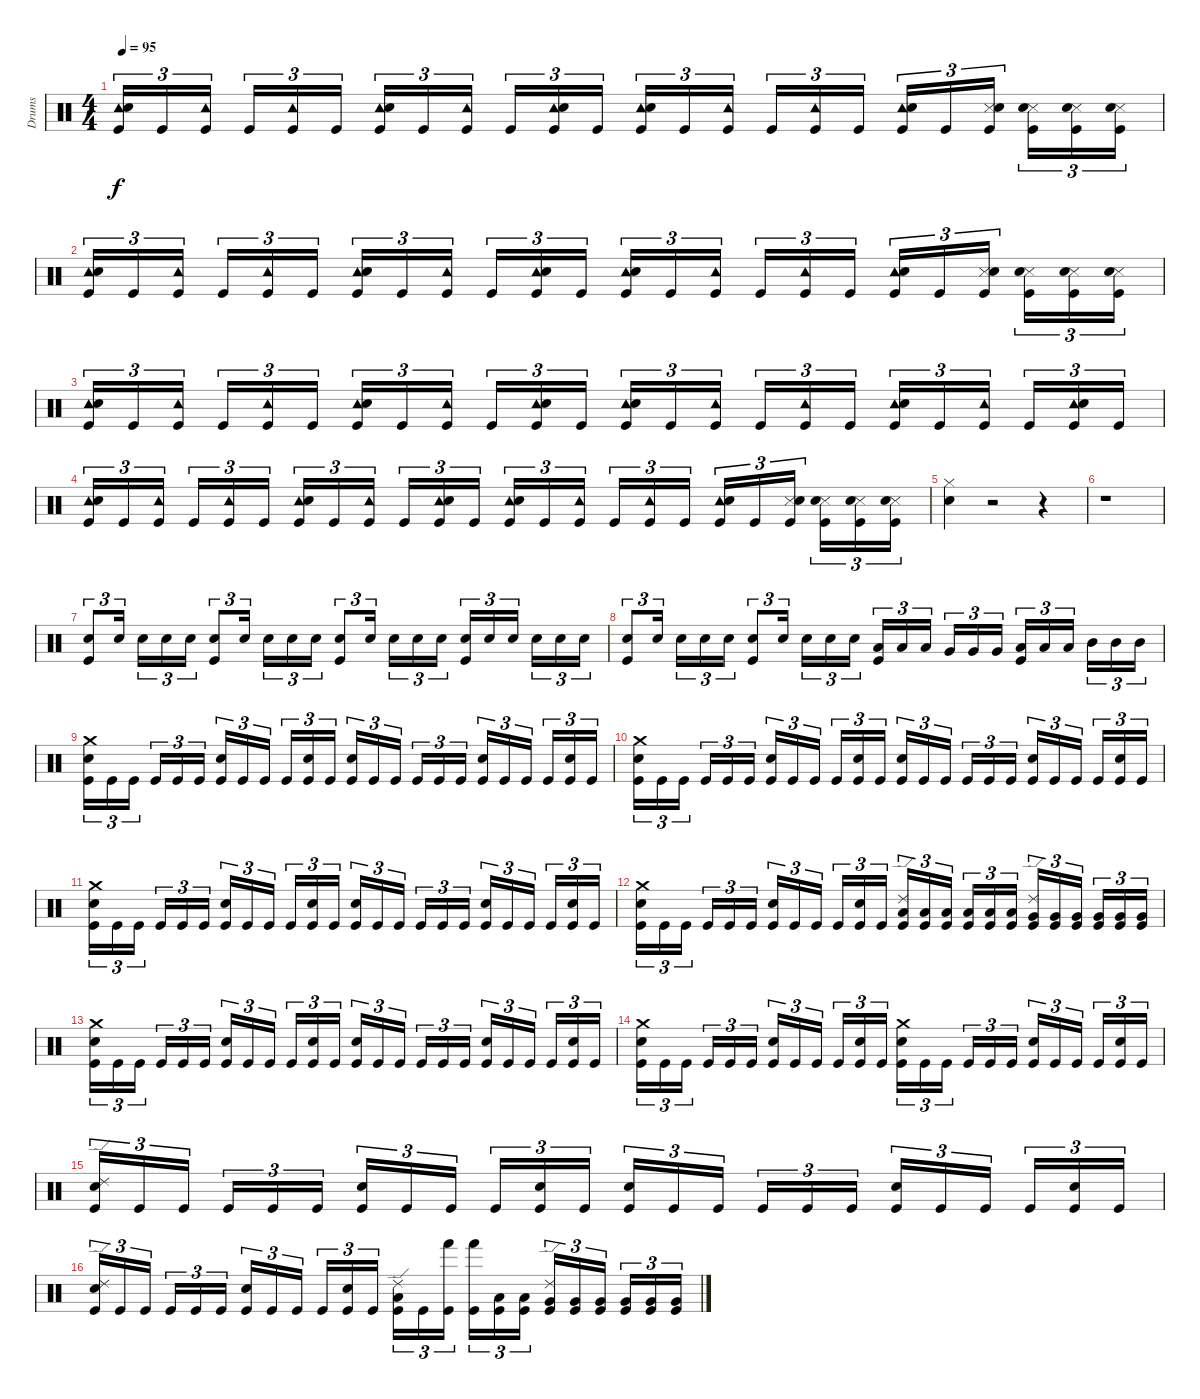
\track ("Drums" "Drums") {instrument percussion}
\staff {score}
\articulation defaults
\ts (4 4)
\tempo 95
\clef neutral
\ks c
("Tambourine (hit)" "Snare (hit) 2" "Kick (hit)").16{tu (3 2) dy f} "Kick (hit)".16{tu (3 2)} ("Tambourine (hit)" "Kick (hit)").16{tu (3 2)} "Kick (hit)".16{tu (3 2)} ("Tambourine (hit)" "Kick (hit)").16{tu (3 2)} "Kick (hit)".16{tu (3 2)} ("Tambourine (hit)" "Snare (hit) 2" "Kick (hit)").16{tu (3 2)} "Kick (hit)".16{tu (3 2)} ("Tambourine (hit)" "Kick (hit)").16{tu (3 2)} "Kick (hit)".16{tu (3 2)} ("Tambourine (hit)" "Snare (hit) 2" "Kick (hit)").16{tu (3 2)} "Kick (hit)".16{tu (3 2)} ("Tambourine (hit)" "Snare (hit) 2" "Kick (hit)").16{tu (3 2)} "Kick (hit)".16{tu (3 2)} ("Tambourine (hit)" "Kick (hit)").16{tu (3 2)} "Kick (hit)".16{tu (3 2)} ("Tambourine (hit)" "Kick (hit)").16{tu (3 2)} "Kick (hit)".16{tu (3 2)} ("Tambourine (hit)" "Snare (hit) 2" "Kick (hit)").16{tu (3 2)} "Kick (hit)".16{tu (3 2)} ("Snare (side stick) 3" "Snare (hit) 2" "Kick (hit)").16{tu (3 2)} ("Snare (side stick) 3" "Snare (hit) 2" "Kick (hit)").16{tu (3 2)} ("Snare (side stick) 3" "Snare (hit) 2" "Kick (hit)").16{tu (3 2)} ("Snare (side stick) 3" "Snare (hit) 2" "Kick (hit)").16{tu (3 2)} |
("Tambourine (hit)" "Snare (hit) 2" "Kick (hit)").16{tu (3 2)} "Kick (hit)".16{tu (3 2)} ("Tambourine (hit)" "Kick (hit)").16{tu (3 2)} "Kick (hit)".16{tu (3 2)} ("Tambourine (hit)" "Kick (hit)").16{tu (3 2)} "Kick (hit)".16{tu (3 2)} ("Tambourine (hit)" "Snare (hit) 2" "Kick (hit)").16{tu (3 2)} "Kick (hit)".16{tu (3 2)} ("Tambourine (hit)" "Kick (hit)").16{tu (3 2)} "Kick (hit)".16{tu (3 2)} ("Tambourine (hit)" "Snare (hit) 2" "Kick (hit)").16{tu (3 2)} "Kick (hit)".16{tu (3 2)} ("Tambourine (hit)" "Snare (hit) 2" "Kick (hit)").16{tu (3 2)} "Kick (hit)".16{tu (3 2)} ("Tambourine (hit)" "Kick (hit)").16{tu (3 2)} "Kick (hit)".16{tu (3 2)} ("Tambourine (hit)" "Kick (hit)").16{tu (3 2)} "Kick (hit)".16{tu (3 2)} ("Tambourine (hit)" "Snare (hit) 2" "Kick (hit)").16{tu (3 2)} "Kick (hit)".16{tu (3 2)} ("Snare (side stick) 3" "Snare (hit) 2" "Kick (hit)").16{tu (3 2)} ("Snare (side stick) 3" "Snare (hit) 2" "Kick (hit)").16{tu (3 2)} ("Snare (side stick) 3" "Snare (hit) 2" "Kick (hit)").16{tu (3 2)} ("Snare (side stick) 3" "Snare (hit) 2" "Kick (hit)").16{tu (3 2)} |
("Tambourine (hit)" "Snare (hit) 2" "Kick (hit)").16{tu (3 2)} "Kick (hit)".16{tu (3 2)} ("Tambourine (hit)" "Kick (hit)").16{tu (3 2)} "Kick (hit)".16{tu (3 2)} ("Tambourine (hit)" "Kick (hit)").16{tu (3 2)} "Kick (hit)".16{tu (3 2)} ("Tambourine (hit)" "Snare (hit) 2" "Kick (hit)").16{tu (3 2)} "Kick (hit)".16{tu (3 2)} ("Tambourine (hit)" "Kick (hit)").16{tu (3 2)} "Kick (hit)".16{tu (3 2)} ("Tambourine (hit)" "Snare (hit) 2" "Kick (hit)").16{tu (3 2)} "Kick (hit)".16{tu (3 2)} ("Tambourine (hit)" "Snare (hit) 2" "Kick (hit)").16{tu (3 2)} "Kick (hit)".16{tu (3 2)} ("Tambourine (hit)" "Kick (hit)").16{tu (3 2)} "Kick (hit)".16{tu (3 2)} ("Tambourine (hit)" "Kick (hit)").16{tu (3 2)} "Kick (hit)".16{tu (3 2)} ("Tambourine (hit)" "Snare (hit) 2" "Kick (hit)").16{tu (3 2)} "Kick (hit)".16{tu (3 2)} ("Tambourine (hit)" "Kick (hit)").16{tu (3 2)} "Kick (hit)".16{tu (3 2)} ("Tambourine (hit)" "Snare (hit) 2" "Kick (hit)").16{tu (3 2)} "Kick (hit)".16{tu (3 2)} |
("Tambourine (hit)" "Snare (hit) 2" "Kick (hit)").16{tu (3 2)} "Kick (hit)".16{tu (3 2)} ("Tambourine (hit)" "Kick (hit)").16{tu (3 2)} "Kick (hit)".16{tu (3 2)} ("Tambourine (hit)" "Kick (hit)").16{tu (3 2)} "Kick (hit)".16{tu (3 2)} ("Tambourine (hit)" "Snare (hit) 2" "Kick (hit)").16{tu (3 2)} "Kick (hit)".16{tu (3 2)} ("Tambourine (hit)" "Kick (hit)").16{tu (3 2)} "Kick (hit)".16{tu (3 2)} ("Tambourine (hit)" "Snare (hit) 2" "Kick (hit)").16{tu (3 2)} "Kick (hit)".16{tu (3 2)} ("Tambourine (hit)" "Snare (hit) 2" "Kick (hit)").16{tu (3 2)} "Kick (hit)".16{tu (3 2)} ("Tambourine (hit)" "Kick (hit)").16{tu (3 2)} "Kick (hit)".16{tu (3 2)} ("Tambourine (hit)" "Kick (hit)").16{tu (3 2)} "Kick (hit)".16{tu (3 2)} ("Tambourine (hit)" "Snare (hit) 2" "Kick (hit)").16{tu (3 2)} "Kick (hit)".16{tu (3 2)} ("Snare (side stick) 3" "Snare (hit) 2" "Kick (hit)").16{tu (3 2)} ("Snare (side stick) 3" "Snare (hit) 2" "Kick (hit)").16{tu (3 2)} ("Snare (side stick) 3" "Snare (hit) 2" "Kick (hit)").16{tu (3 2)} ("Snare (side stick) 3" "Snare (hit) 2" "Kick (hit)").16{tu (3 2)} |
("Hi-Hat (closed)" "Snare (hit) 2").4 r.2 r.4 |
r.1 |
("Snare (hit) 2" "Kick (hit)").8{tu (3 2)} "Snare (hit) 2".16{tu (3 2)} "Snare (hit) 2".16{tu (3 2)} "Snare (hit) 2".16{tu (3 2)} "Snare (hit) 2".16{tu (3 2)} ("Snare (hit) 2" "Kick (hit)").8{tu (3 2)} "Snare (hit) 2".16{tu (3 2)} "Snare (hit) 2".16{tu (3 2)} "Snare (hit) 2".16{tu (3 2)} "Snare (hit) 2".16{tu (3 2)} ("Snare (hit) 2" "Kick (hit)").8{tu (3 2)} "Snare (hit) 2".16{tu (3 2)} "Snare (hit) 2".16{tu (3 2)} "Snare (hit) 2".16{tu (3 2)} "Snare (hit) 2".16{tu (3 2)} ("Snare (hit) 2" "Kick (hit)").16{tu (3 2)} "Snare (hit) 2".16{tu (3 2)} "Snare (hit) 2".16{tu (3 2)} "Snare (hit) 2".16{tu (3 2)} "Snare (hit) 2".16{tu (3 2)} "Snare (hit) 2".16{tu (3 2)} |
("Snare (hit) 2" "Kick (hit)").8{tu (3 2)} "Snare (hit) 2".16{tu (3 2)} "Snare (hit) 2".16{tu (3 2)} "Snare (hit) 2".16{tu (3 2)} "Snare (hit) 2".16{tu (3 2)} ("Snare (hit) 2" "Kick (hit)").8{tu (3 2)} "Snare (hit) 2".16{tu (3 2)} "Snare (hit) 2".16{tu (3 2)} "Snare (hit) 2".16{tu (3 2)} "Snare (hit) 2".16{tu (3 2)} ("Low Floor Tom (hit)" "Kick (hit)").16{tu (3 2)} "Low Floor Tom (hit)".16{tu (3 2)} "Low Floor Tom (hit)".16{tu (3 2)} "Very Low Tom (hit)".16{tu (3 2)} "Very Low Tom (hit)".16{tu (3 2)} "Very Low Tom (hit)".16{tu (3 2)} ("Low Tom (hit)" "Kick (hit)").16{tu (3 2)} "Low Tom (hit)".16{tu (3 2)} "Low Tom (hit)".16{tu (3 2)} "Mid Tom (hit)".16{tu (3 2)} "Mid Tom (hit)".16{tu (3 2)} "Mid Tom (hit)".16{tu (3 2)} |
("Crash medium (hit)" "Snare (hit) 2" "Kick (hit)").16{tu (3 2)} "Kick (hit)".16{tu (3 2)} "Kick (hit)".16{tu (3 2)} "Kick (hit)".16{tu (3 2)} "Kick (hit)".16{tu (3 2)} "Kick (hit)".16{tu (3 2)} ("Snare (hit) 2" "Kick (hit)").16{tu (3 2)} "Kick (hit)".16{tu (3 2)} "Kick (hit)".16{tu (3 2)} "Kick (hit)".16{tu (3 2)} ("Snare (hit) 2" "Kick (hit)").16{tu (3 2)} "Kick (hit)".16{tu (3 2)} ("Snare (hit) 2" "Kick (hit)").16{tu (3 2)} "Kick (hit)".16{tu (3 2)} "Kick (hit)".16{tu (3 2)} "Kick (hit)".16{tu (3 2)} "Kick (hit)".16{tu (3 2)} "Kick (hit)".16{tu (3 2)} ("Snare (hit) 2" "Kick (hit)").16{tu (3 2)} "Kick (hit)".16{tu (3 2)} "Kick (hit)".16{tu (3 2)} "Kick (hit)".16{tu (3 2)} ("Snare (hit) 2" "Kick (hit)").16{tu (3 2)} "Kick (hit)".16{tu (3 2)} |
("Crash medium (hit)" "Snare (hit) 2" "Kick (hit)").16{tu (3 2)} "Kick (hit)".16{tu (3 2)} "Kick (hit)".16{tu (3 2)} "Kick (hit)".16{tu (3 2)} "Kick (hit)".16{tu (3 2)} "Kick (hit)".16{tu (3 2)} ("Snare (hit) 2" "Kick (hit)").16{tu (3 2)} "Kick (hit)".16{tu (3 2)} "Kick (hit)".16{tu (3 2)} "Kick (hit)".16{tu (3 2)} ("Snare (hit) 2" "Kick (hit)").16{tu (3 2)} "Kick (hit)".16{tu (3 2)} ("Snare (hit) 2" "Kick (hit)").16{tu (3 2)} "Kick (hit)".16{tu (3 2)} "Kick (hit)".16{tu (3 2)} "Kick (hit)".16{tu (3 2)} "Kick (hit)".16{tu (3 2)} "Kick (hit)".16{tu (3 2)} ("Snare (hit) 2" "Kick (hit)").16{tu (3 2)} "Kick (hit)".16{tu (3 2)} "Kick (hit)".16{tu (3 2)} "Kick (hit)".16{tu (3 2)} ("Snare (hit) 2" "Kick (hit)").16{tu (3 2)} "Kick (hit)".16{tu (3 2)} |
("Crash medium (hit)" "Snare (hit) 2" "Kick (hit)").16{tu (3 2)} "Kick (hit)".16{tu (3 2)} "Kick (hit)".16{tu (3 2)} "Kick (hit)".16{tu (3 2)} "Kick (hit)".16{tu (3 2)} "Kick (hit)".16{tu (3 2)} ("Snare (hit) 2" "Kick (hit)").16{tu (3 2)} "Kick (hit)".16{tu (3 2)} "Kick (hit)".16{tu (3 2)} "Kick (hit)".16{tu (3 2)} ("Snare (hit) 2" "Kick (hit)").16{tu (3 2)} "Kick (hit)".16{tu (3 2)} ("Snare (hit) 2" "Kick (hit)").16{tu (3 2)} "Kick (hit)".16{tu (3 2)} "Kick (hit)".16{tu (3 2)} "Kick (hit)".16{tu (3 2)} "Kick (hit)".16{tu (3 2)} "Kick (hit)".16{tu (3 2)} ("Snare (hit) 2" "Kick (hit)").16{tu (3 2)} "Kick (hit)".16{tu (3 2)} "Kick (hit)".16{tu (3 2)} "Kick (hit)".16{tu (3 2)} ("Snare (hit) 2" "Kick (hit)").16{tu (3 2)} "Kick (hit)".16{tu (3 2)} |
("Crash medium (hit)" "Snare (hit) 2" "Kick (hit)").16{tu (3 2)} "Kick (hit)".16{tu (3 2)} "Kick (hit)".16{tu (3 2)} "Kick (hit)".16{tu (3 2)} "Kick (hit)".16{tu (3 2)} "Kick (hit)".16{tu (3 2)} ("Snare (hit) 2" "Kick (hit)").16{tu (3 2)} "Kick (hit)".16{tu (3 2)} "Kick (hit)".16{tu (3 2)} "Kick (hit)".16{tu (3 2)} ("Snare (hit) 2" "Kick (hit)").16{tu (3 2)} "Kick (hit)".16{tu (3 2)} ("Ride (edge) 2" "Low Floor Tom (hit)" "Kick (hit)").16{tu (3 2)} ("Low Floor Tom (hit)" "Kick (hit)").16{tu (3 2)} ("Low Floor Tom (hit)" "Kick (hit)").16{tu (3 2)} ("Low Floor Tom (hit)" "Kick (hit)").16{tu (3 2)} ("Low Floor Tom (hit)" "Kick (hit)").16{tu (3 2)} ("Low Floor Tom (hit)" "Kick (hit)").16{tu (3 2)} ("Ride (edge) 2" "Very Low Tom (hit)" "Kick (hit)").16{tu (3 2)} ("Very Low Tom (hit)" "Kick (hit)").16{tu (3 2)} ("Very Low Tom (hit)" "Kick (hit)").16{tu (3 2)} ("Very Low Tom (hit)" "Kick (hit)").16{tu (3 2)} ("Very Low Tom (hit)" "Kick (hit)").16{tu (3 2)} ("Very Low Tom (hit)" "Kick (hit)").16{tu (3 2)} |
("Crash medium (hit)" "Snare (hit) 2" "Kick (hit)").16{tu (3 2)} "Kick (hit)".16{tu (3 2)} "Kick (hit)".16{tu (3 2)} "Kick (hit)".16{tu (3 2)} "Kick (hit)".16{tu (3 2)} "Kick (hit)".16{tu (3 2)} ("Snare (hit) 2" "Kick (hit)").16{tu (3 2)} "Kick (hit)".16{tu (3 2)} "Kick (hit)".16{tu (3 2)} "Kick (hit)".16{tu (3 2)} ("Snare (hit) 2" "Kick (hit)").16{tu (3 2)} "Kick (hit)".16{tu (3 2)} ("Snare (hit) 2" "Kick (hit)").16{tu (3 2)} "Kick (hit)".16{tu (3 2)} "Kick (hit)".16{tu (3 2)} "Kick (hit)".16{tu (3 2)} "Kick (hit)".16{tu (3 2)} "Kick (hit)".16{tu (3 2)} ("Snare (hit) 2" "Kick (hit)").16{tu (3 2)} "Kick (hit)".16{tu (3 2)} "Kick (hit)".16{tu (3 2)} "Kick (hit)".16{tu (3 2)} ("Snare (hit) 2" "Kick (hit)").16{tu (3 2)} "Kick (hit)".16{tu (3 2)} |
("Crash medium (hit)" "Snare (hit) 2" "Kick (hit)").16{tu (3 2)} "Kick (hit)".16{tu (3 2)} "Kick (hit)".16{tu (3 2)} "Kick (hit)".16{tu (3 2)} "Kick (hit)".16{tu (3 2)} "Kick (hit)".16{tu (3 2)} ("Snare (hit) 2" "Kick (hit)").16{tu (3 2)} "Kick (hit)".16{tu (3 2)} "Kick (hit)".16{tu (3 2)} "Kick (hit)".16{tu (3 2)} ("Snare (hit) 2" "Kick (hit)").16{tu (3 2)} "Kick (hit)".16{tu (3 2)} ("Crash medium (hit)" "Snare (hit) 2" "Kick (hit)").16{tu (3 2)} "Kick (hit)".16{tu (3 2)} "Kick (hit)".16{tu (3 2)} "Kick (hit)".16{tu (3 2)} "Kick (hit)".16{tu (3 2)} "Kick (hit)".16{tu (3 2)} ("Snare (hit) 2" "Kick (hit)").16{tu (3 2)} "Kick (hit)".16{tu (3 2)} "Kick (hit)".16{tu (3 2)} "Kick (hit)".16{tu (3 2)} ("Snare (hit) 2" "Kick (hit)").16{tu (3 2)} "Kick (hit)".16{tu (3 2)} |
("Ride (edge) 2" "Snare (hit) 2" "Kick (hit)").16{tu (3 2)} "Kick (hit)".16{tu (3 2)} "Kick (hit)".16{tu (3 2)} "Kick (hit)".16{tu (3 2)} "Kick (hit)".16{tu (3 2)} "Kick (hit)".16{tu (3 2)} ("Snare (hit) 2" "Kick (hit)").16{tu (3 2)} "Kick (hit)".16{tu (3 2)} "Kick (hit)".16{tu (3 2)} "Kick (hit)".16{tu (3 2)} ("Snare (hit) 2" "Kick (hit)").16{tu (3 2)} "Kick (hit)".16{tu (3 2)} ("Snare (hit) 2" "Kick (hit)").16{tu (3 2)} "Kick (hit)".16{tu (3 2)} "Kick (hit)".16{tu (3 2)} "Kick (hit)".16{tu (3 2)} "Kick (hit)".16{tu (3 2)} "Kick (hit)".16{tu (3 2)} ("Snare (hit) 2" "Kick (hit)").16{tu (3 2)} "Kick (hit)".16{tu (3 2)} "Kick (hit)".16{tu (3 2)} "Kick (hit)".16{tu (3 2)} ("Snare (hit) 2" "Kick (hit)").16{tu (3 2)} "Kick (hit)".16{tu (3 2)} |
("Ride (edge) 2" "Snare (hit) 2" "Kick (hit)").16{tu (3 2)} "Kick (hit)".16{tu (3 2)} "Kick (hit)".16{tu (3 2)} "Kick (hit)".16{tu (3 2)} "Kick (hit)".16{tu (3 2)} "Kick (hit)".16{tu (3 2)} ("Snare (hit) 2" "Kick (hit)").16{tu (3 2)} "Kick (hit)".16{tu (3 2)} "Kick (hit)".16{tu (3 2)} "Kick (hit)".16{tu (3 2)} ("Snare (hit) 2" "Kick (hit)").16{tu (3 2)} "Kick (hit)".16{tu (3 2)} ("Ride (edge) 2" "Low Floor Tom (hit)" "Kick (hit)").16{tu (3 2)} "Kick (hit)".16{tu (3 2)} ("Hand (hit)" "Kick (hit)").16{tu (3 2)} ("Hand (hit)" "Kick (hit)").16{tu (3 2)} ("Low Floor Tom (hit)" "Kick (hit)").16{tu (3 2)} ("Low Floor Tom (hit)" "Kick (hit)").16{tu (3 2)} ("Ride (edge) 2" "Very Low Tom (hit)" "Kick (hit)").16{tu (3 2)} ("Very Low Tom (hit)" "Kick (hit)").16{tu (3 2)} ("Very Low Tom (hit)" "Kick (hit)").16{tu (3 2)} ("Very Low Tom (hit)" "Kick (hit)").16{tu (3 2)} ("Very Low Tom (hit)" "Kick (hit)").16{tu (3 2)} ("Very Low Tom (hit)" "Kick (hit)").16{tu (3 2)}
